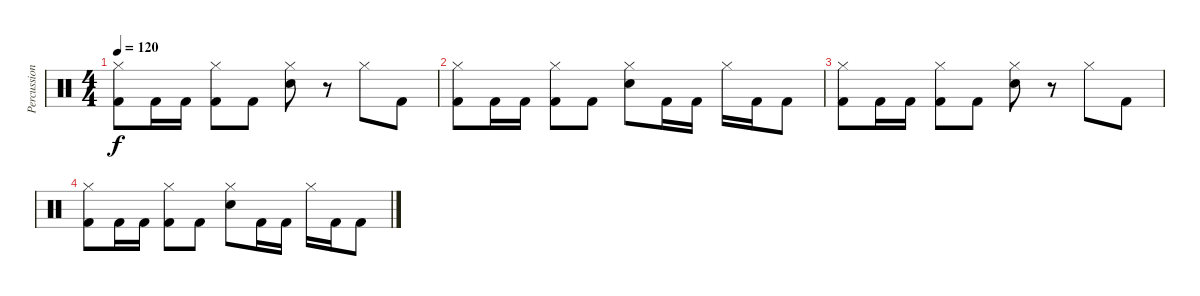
\track ("Percussions" "Percussion") {instrument percussion}
\staff {score}
\articulation defaults
\ts (4 4)
\tempo 120
\clef neutral
\ks c
("Hi-Hat (closed)" "Kick (hit) 2").8{dy f} "Kick (hit) 2".16 "Kick (hit) 2".16 ("Hi-Hat (closed)" "Kick (hit) 2").8 "Kick (hit) 2".8 ("Hi-Hat (closed)" "Snare (hit) 2").8 r.8 "Hi-Hat (closed)".8 "Kick (hit) 2".8 |
("Hi-Hat (closed)" "Kick (hit) 2").8 "Kick (hit) 2".16 "Kick (hit) 2".16 ("Hi-Hat (closed)" "Kick (hit) 2").8 "Kick (hit) 2".8 ("Hi-Hat (closed)" "Snare (hit) 2").8 "Kick (hit) 2".16 "Kick (hit) 2".16 "Hi-Hat (closed)".16 "Kick (hit) 2".16 "Kick (hit) 2".8 |
("Hi-Hat (closed)" "Kick (hit) 2").8 "Kick (hit) 2".16 "Kick (hit) 2".16 ("Hi-Hat (closed)" "Kick (hit) 2").8 "Kick (hit) 2".8 ("Hi-Hat (closed)" "Snare (hit) 2").8 r.8 "Hi-Hat (closed)".8 "Kick (hit) 2".8 |
("Hi-Hat (closed)" "Kick (hit) 2").8 "Kick (hit) 2".16 "Kick (hit) 2".16 ("Hi-Hat (closed)" "Kick (hit) 2").8 "Kick (hit) 2".8 ("Hi-Hat (closed)" "Snare (hit) 2").8 "Kick (hit) 2".16 "Kick (hit) 2".16 "Hi-Hat (closed)".16 "Kick (hit) 2".16 "Kick (hit) 2".8
